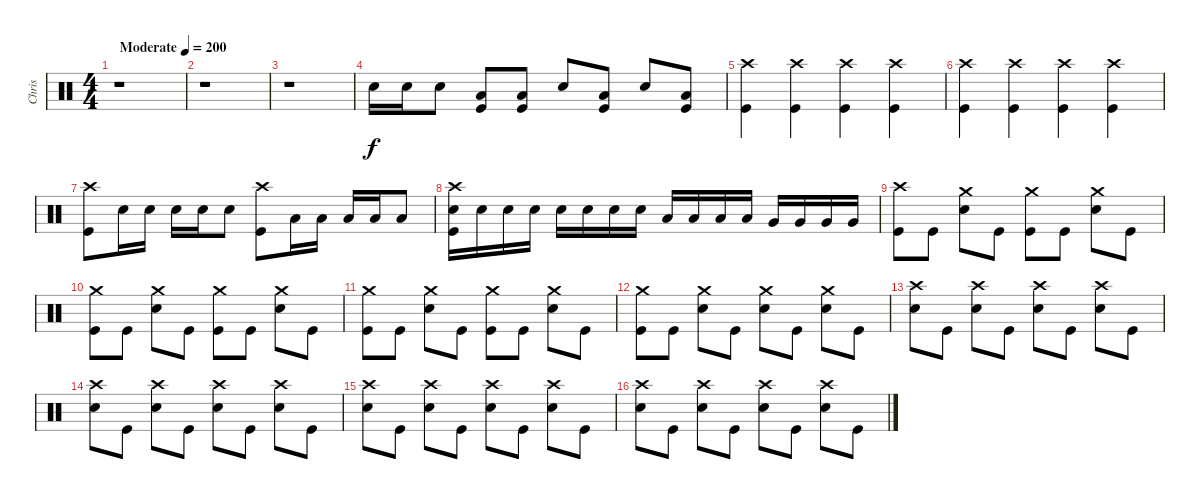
\track ("Chris" "Chris") {instrument percussion}
\staff {score}
\articulation defaults
\ts (4 4)
\tempo (200 "Moderate")
\clef neutral
\ks c
r.1{dy f} |
r.1 |
r.1 |
"Electric Snare (hit)".16 "Electric Snare (hit)".16 "Electric Snare (hit)".8 ("Low Floor Tom (hit)" "Kick (hit)").8 ("Low Floor Tom (hit)" "Kick (hit)").8 "Electric Snare (hit)".8 ("Low Floor Tom (hit)" "Kick (hit)").8 "Electric Snare (hit)".8 ("Low Floor Tom (hit)" "Kick (hit)").8 |
("Crash high (hit)" "Kick (hit)").4 ("Crash high (hit)" "Kick (hit)").4 ("Crash high (hit)" "Kick (hit)").4 ("Crash high (hit)" "Kick (hit)").4 |
("Crash high (hit)" "Kick (hit)").4 ("Crash high (hit)" "Kick (hit)").4 ("Crash high (hit)" "Kick (hit)").4 ("Crash high (hit)" "Kick (hit)").4 |
("Crash high (hit)" "Kick (hit)").8 "Electric Snare (hit)".16 "Electric Snare (hit)".16 "Electric Snare (hit)".16 "Electric Snare (hit)".16 "Electric Snare (hit)".8 ("Crash high (hit)" "Kick (hit)").8 "Low Tom (hit)".16 "Low Tom (hit)".16 "Low Tom (hit)".16 "Low Tom (hit)".16 "Low Tom (hit)".8 |
("Crash high (hit)" "Electric Snare (hit)" "Kick (hit)").16 "Electric Snare (hit)".16 "Electric Snare (hit)".16 "Electric Snare (hit)".16 "Electric Snare (hit)".16 "Electric Snare (hit)".16 "Electric Snare (hit)".16 "Electric Snare (hit)".16 "Low Tom (hit)".16 "Low Tom (hit)".16 "Low Tom (hit)".16 "Low Tom (hit)".16 "Very Low Tom (hit)".16 "Very Low Tom (hit)".16 "Very Low Tom (hit)".16 "Very Low Tom (hit)".16 |
("Crash high (hit)" "Kick (hit)").8 "Kick (hit)".8 ("Crash medium (hit)" "Electric Snare (hit)").8 "Kick (hit)".8 ("Crash medium (hit)" "Kick (hit)").8 "Kick (hit)".8 ("Crash medium (hit)" "Electric Snare (hit)").8 "Kick (hit)".8 |
("Crash medium (hit)" "Kick (hit)").8 "Kick (hit)".8 ("Crash medium (hit)" "Electric Snare (hit)").8 "Kick (hit)".8 ("Crash medium (hit)" "Kick (hit)").8 "Kick (hit)".8 ("Crash medium (hit)" "Electric Snare (hit)").8 "Kick (hit)".8 |
("Crash medium (hit)" "Kick (hit)").8 "Kick (hit)".8 ("Crash medium (hit)" "Electric Snare (hit)").8 "Kick (hit)".8 ("Crash medium (hit)" "Kick (hit)").8 "Kick (hit)".8 ("Crash medium (hit)" "Electric Snare (hit)").8 "Kick (hit)".8 |
("Crash medium (hit)" "Kick (hit)").8 "Kick (hit)".8 ("Crash medium (hit)" "Electric Snare (hit)").8 "Kick (hit)".8 ("Crash medium (hit)" "Electric Snare (hit)").8 "Kick (hit)".8 ("Crash medium (hit)" "Electric Snare (hit)").8 "Kick (hit)".8 |
("Crash high (hit)" "Electric Snare (hit)").8 "Kick (hit)".8 ("Crash high (hit)" "Electric Snare (hit)").8 "Kick (hit)".8 ("Crash high (hit)" "Electric Snare (hit)").8 "Kick (hit)".8 ("Crash high (hit)" "Electric Snare (hit)").8 "Kick (hit)".8 |
("Crash high (hit)" "Electric Snare (hit)").8 "Kick (hit)".8 ("Crash high (hit)" "Electric Snare (hit)").8 "Kick (hit)".8 ("Crash high (hit)" "Electric Snare (hit)").8 "Kick (hit)".8 ("Crash high (hit)" "Electric Snare (hit)").8 "Kick (hit)".8 |
("Crash high (hit)" "Electric Snare (hit)").8 "Kick (hit)".8 ("Crash high (hit)" "Electric Snare (hit)").8 "Kick (hit)".8 ("Crash high (hit)" "Electric Snare (hit)").8 "Kick (hit)".8 ("Crash high (hit)" "Electric Snare (hit)").8 "Kick (hit)".8 |
("Crash high (hit)" "Electric Snare (hit)").8 "Kick (hit)".8 ("Crash high (hit)" "Electric Snare (hit)").8 "Kick (hit)".8 ("Crash high (hit)" "Electric Snare (hit)").8 "Kick (hit)".8 ("Crash high (hit)" "Electric Snare (hit)").8 "Kick (hit)".8
